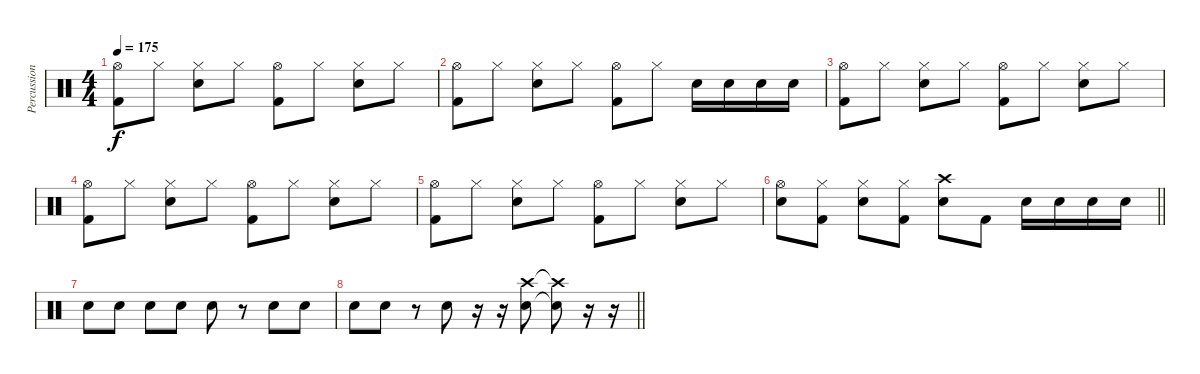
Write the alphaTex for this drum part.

\track ("Percussion" "Percussion") {instrument percussion}
\staff {score}
\articulation defaults
\ts (4 4)
\tempo 175
\clef neutral
\ks c
("Hi-Hat (open)" "Kick (hit) 2").8{dy f} "Hi-Hat (closed)".8 ("Hi-Hat (closed)" "Snare (hit) 2").8 "Hi-Hat (closed)".8 ("Hi-Hat (open)" "Kick (hit) 2").8 "Hi-Hat (closed)".8 ("Hi-Hat (closed)" "Snare (hit) 2").8 "Hi-Hat (closed)".8 |
("Hi-Hat (open)" "Kick (hit) 2").8 "Hi-Hat (closed)".8 ("Hi-Hat (closed)" "Snare (hit) 2").8 "Hi-Hat (closed)".8 ("Hi-Hat (open)" "Kick (hit) 2").8 "Hi-Hat (closed)".8 "Snare (hit) 2".16 "Snare (hit) 2".16 "Snare (hit) 2".16 "Snare (hit) 2".16 |
("Hi-Hat (open)" "Kick (hit) 2").8 "Hi-Hat (closed)".8 ("Hi-Hat (closed)" "Snare (hit) 2").8 "Hi-Hat (closed)".8 ("Hi-Hat (open)" "Kick (hit) 2").8 "Hi-Hat (closed)".8 ("Hi-Hat (closed)" "Snare (hit) 2").8 "Hi-Hat (closed)".8 |
("Hi-Hat (open)" "Kick (hit) 2").8 "Hi-Hat (closed)".8 ("Hi-Hat (closed)" "Snare (hit) 2").8 "Hi-Hat (closed)".8 ("Hi-Hat (open)" "Kick (hit) 2").8 "Hi-Hat (closed)".8 ("Hi-Hat (closed)" "Snare (hit) 2").8 "Hi-Hat (closed)".8 |
("Hi-Hat (open)" "Kick (hit) 2").8 "Hi-Hat (closed)".8 ("Hi-Hat (closed)" "Snare (hit) 2").8 "Hi-Hat (closed)".8 ("Hi-Hat (open)" "Kick (hit) 2").8 "Hi-Hat (closed)".8 ("Hi-Hat (closed)" "Snare (hit) 2").8 "Hi-Hat (closed)".8 |
\barLineRight lightlight
("Hi-Hat (open)" "Snare (hit) 2").8 ("Hi-Hat (closed)" "Kick (hit) 2").8 ("Hi-Hat (closed)" "Snare (hit) 2").8 ("Hi-Hat (closed)" "Kick (hit) 2").8 ("Crash high (hit)" "Snare (hit) 2").8 "Kick (hit) 2".8 "Snare (hit) 2".16 "Snare (hit) 2".16 "Snare (hit) 2".16 "Snare (hit) 2".16 |
"Snare (hit) 2".8 "Snare (hit) 2".8 "Snare (hit) 2".8 "Snare (hit) 2".8 "Snare (hit) 2".8 r.8 "Snare (hit) 2".8 "Snare (hit) 2".8 |
\barLineRight lightlight "Snare (hit) 2".8 "Snare (hit) 2".8
r.8 "Snare (hit) 2".8 r.16 r.16 ("Crash high (hit)" "Snare (hit) 2").8 ("Crash high (hit)"{t} "Snare (hit) 2"{t}).8 r.16 r.16
